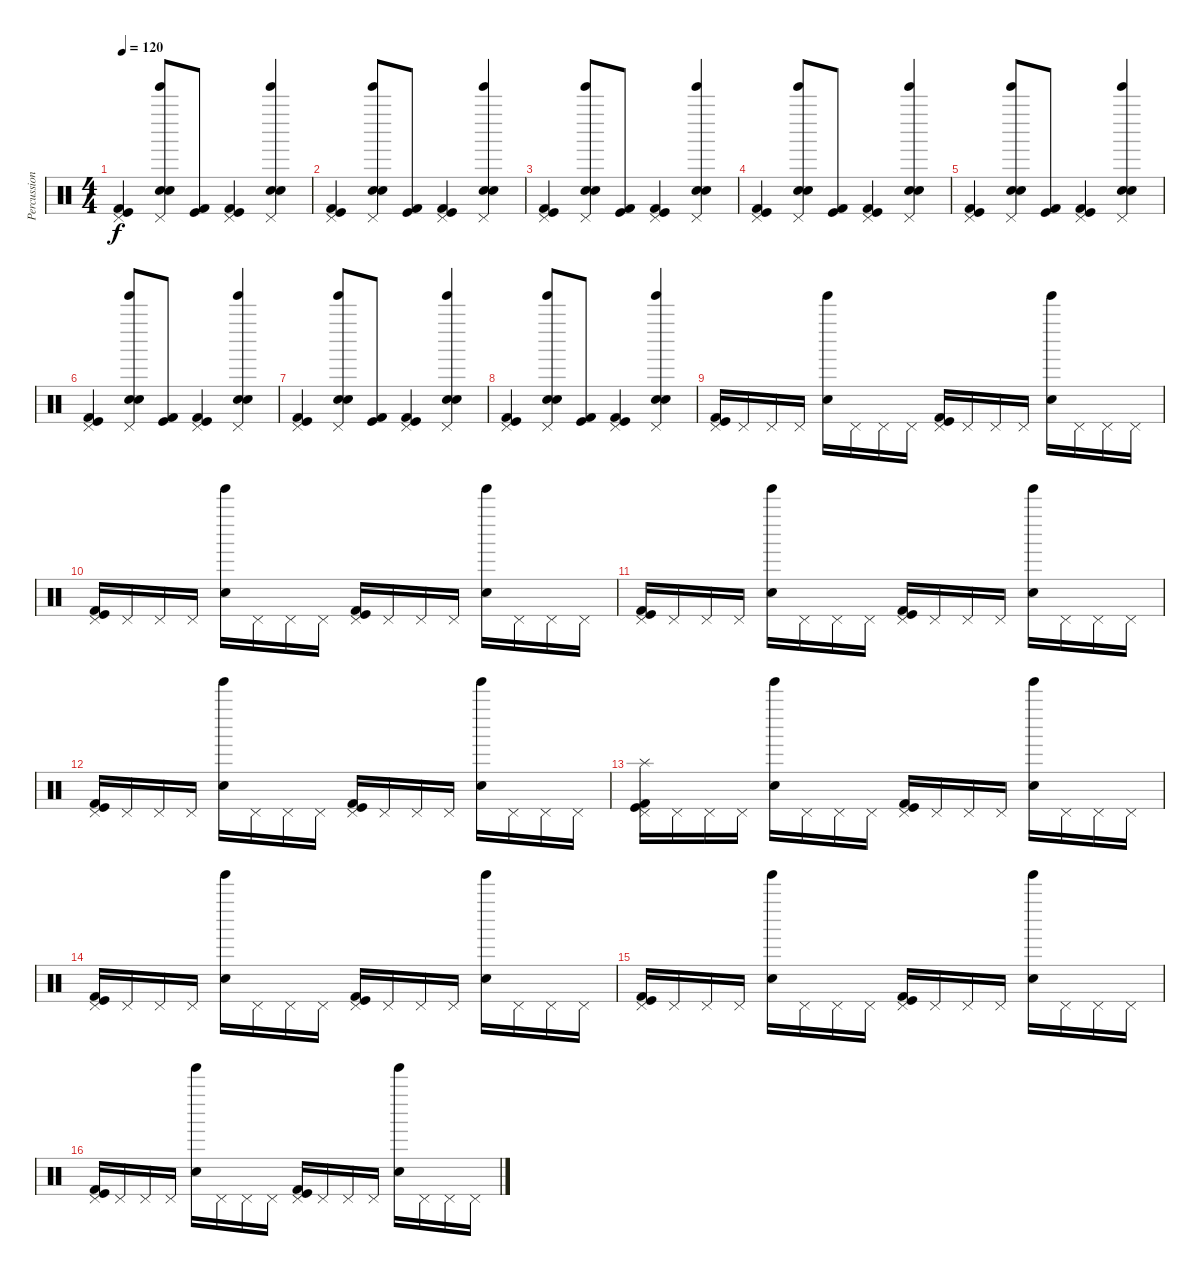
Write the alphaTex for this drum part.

\track ("Percussion" "Percussion") {instrument percussion}
\staff {score}
\articulation defaults
\ts (4 4)
\tempo 120
\clef neutral
\ks c
("Pedal Hi-Hat (hit)" "Kick (hit)" "Kick (hit) 2").4{dy f} ("Tinkle Bell (hit)" "Pedal Hi-Hat (hit)" "Snare (hit) 2" "Electric Snare (hit)").8 ("Kick (hit)" "Kick (hit) 2").8 ("Pedal Hi-Hat (hit)" "Kick (hit)" "Kick (hit) 2").4 ("Tinkle Bell (hit)" "Pedal Hi-Hat (hit)" "Snare (hit) 2" "Electric Snare (hit)").4 |
("Pedal Hi-Hat (hit)" "Kick (hit)" "Kick (hit) 2").4 ("Tinkle Bell (hit)" "Pedal Hi-Hat (hit)" "Snare (hit) 2" "Electric Snare (hit)").8 ("Kick (hit)" "Kick (hit) 2").8 ("Pedal Hi-Hat (hit)" "Kick (hit)" "Kick (hit) 2").4 ("Tinkle Bell (hit)" "Pedal Hi-Hat (hit)" "Snare (hit) 2" "Electric Snare (hit)").4 |
("Pedal Hi-Hat (hit)" "Kick (hit)" "Kick (hit) 2").4 ("Tinkle Bell (hit)" "Pedal Hi-Hat (hit)" "Snare (hit) 2" "Electric Snare (hit)").8 ("Kick (hit)" "Kick (hit) 2").8 ("Pedal Hi-Hat (hit)" "Kick (hit)" "Kick (hit) 2").4 ("Tinkle Bell (hit)" "Pedal Hi-Hat (hit)" "Snare (hit) 2" "Electric Snare (hit)").4 |
("Pedal Hi-Hat (hit)" "Kick (hit)" "Kick (hit) 2").4 ("Tinkle Bell (hit)" "Pedal Hi-Hat (hit)" "Snare (hit) 2" "Electric Snare (hit)").8 ("Kick (hit)" "Kick (hit) 2").8 ("Pedal Hi-Hat (hit)" "Kick (hit)" "Kick (hit) 2").4 ("Tinkle Bell (hit)" "Pedal Hi-Hat (hit)" "Snare (hit) 2" "Electric Snare (hit)").4 |
("Pedal Hi-Hat (hit)" "Kick (hit)" "Kick (hit) 2").4 ("Tinkle Bell (hit)" "Pedal Hi-Hat (hit)" "Snare (hit) 2" "Electric Snare (hit)").8 ("Kick (hit)" "Kick (hit) 2").8 ("Pedal Hi-Hat (hit)" "Kick (hit)" "Kick (hit) 2").4 ("Tinkle Bell (hit)" "Pedal Hi-Hat (hit)" "Snare (hit) 2" "Electric Snare (hit)").4 |
("Pedal Hi-Hat (hit)" "Kick (hit)" "Kick (hit) 2").4 ("Tinkle Bell (hit)" "Pedal Hi-Hat (hit)" "Snare (hit) 2" "Electric Snare (hit)").8 ("Kick (hit)" "Kick (hit) 2").8 ("Pedal Hi-Hat (hit)" "Kick (hit)" "Kick (hit) 2").4 ("Tinkle Bell (hit)" "Pedal Hi-Hat (hit)" "Snare (hit) 2" "Electric Snare (hit)").4 |
("Pedal Hi-Hat (hit)" "Kick (hit)" "Kick (hit) 2").4 ("Tinkle Bell (hit)" "Pedal Hi-Hat (hit)" "Snare (hit) 2" "Electric Snare (hit)").8 ("Kick (hit)" "Kick (hit) 2").8 ("Pedal Hi-Hat (hit)" "Kick (hit)" "Kick (hit) 2").4 ("Tinkle Bell (hit)" "Pedal Hi-Hat (hit)" "Snare (hit) 2" "Electric Snare (hit)").4 |
("Pedal Hi-Hat (hit)" "Kick (hit)" "Kick (hit) 2").4 ("Tinkle Bell (hit)" "Pedal Hi-Hat (hit)" "Snare (hit) 2" "Electric Snare (hit)").8 ("Kick (hit)" "Kick (hit) 2").8 ("Pedal Hi-Hat (hit)" "Kick (hit)" "Kick (hit) 2").4 ("Tinkle Bell (hit)" "Pedal Hi-Hat (hit)" "Snare (hit) 2" "Electric Snare (hit)").4 |
("Pedal Hi-Hat (hit)" "Kick (hit)" "Kick (hit) 2").16 "Pedal Hi-Hat (hit)".16 "Pedal Hi-Hat (hit)".16 "Pedal Hi-Hat (hit)".16 ("Tinkle Bell (hit)" "Snare (hit) 2").16 "Pedal Hi-Hat (hit)".16 "Pedal Hi-Hat (hit)".16 "Pedal Hi-Hat (hit)".16 ("Pedal Hi-Hat (hit)" "Kick (hit)" "Kick (hit) 2").16 "Pedal Hi-Hat (hit)".16 "Pedal Hi-Hat (hit)".16 "Pedal Hi-Hat (hit)".16 ("Tinkle Bell (hit)" "Snare (hit) 2").16 "Pedal Hi-Hat (hit)".16 "Pedal Hi-Hat (hit)".16 "Pedal Hi-Hat (hit)".16 |
("Pedal Hi-Hat (hit)" "Kick (hit)" "Kick (hit) 2").16 "Pedal Hi-Hat (hit)".16 "Pedal Hi-Hat (hit)".16 "Pedal Hi-Hat (hit)".16 ("Tinkle Bell (hit)" "Snare (hit) 2").16 "Pedal Hi-Hat (hit)".16 "Pedal Hi-Hat (hit)".16 "Pedal Hi-Hat (hit)".16 ("Pedal Hi-Hat (hit)" "Kick (hit)" "Kick (hit) 2").16 "Pedal Hi-Hat (hit)".16 "Pedal Hi-Hat (hit)".16 "Pedal Hi-Hat (hit)".16 ("Tinkle Bell (hit)" "Snare (hit) 2").16 "Pedal Hi-Hat (hit)".16 "Pedal Hi-Hat (hit)".16 "Pedal Hi-Hat (hit)".16 |
("Pedal Hi-Hat (hit)" "Kick (hit)" "Kick (hit) 2").16 "Pedal Hi-Hat (hit)".16 "Pedal Hi-Hat (hit)".16 "Pedal Hi-Hat (hit)".16 ("Tinkle Bell (hit)" "Snare (hit) 2").16 "Pedal Hi-Hat (hit)".16 "Pedal Hi-Hat (hit)".16 "Pedal Hi-Hat (hit)".16 ("Pedal Hi-Hat (hit)" "Kick (hit)" "Kick (hit) 2").16 "Pedal Hi-Hat (hit)".16 "Pedal Hi-Hat (hit)".16 "Pedal Hi-Hat (hit)".16 ("Tinkle Bell (hit)" "Snare (hit) 2").16 "Pedal Hi-Hat (hit)".16 "Pedal Hi-Hat (hit)".16 "Pedal Hi-Hat (hit)".16 |
("Pedal Hi-Hat (hit)" "Kick (hit)" "Kick (hit) 2").16 "Pedal Hi-Hat (hit)".16 "Pedal Hi-Hat (hit)".16 "Pedal Hi-Hat (hit)".16 ("Tinkle Bell (hit)" "Snare (hit) 2").16 "Pedal Hi-Hat (hit)".16 "Pedal Hi-Hat (hit)".16 "Pedal Hi-Hat (hit)".16 ("Pedal Hi-Hat (hit)" "Kick (hit)" "Kick (hit) 2").16 "Pedal Hi-Hat (hit)".16 "Pedal Hi-Hat (hit)".16 "Pedal Hi-Hat (hit)".16 ("Tinkle Bell (hit)" "Snare (hit) 2").16 "Pedal Hi-Hat (hit)".16 "Pedal Hi-Hat (hit)".16 "Pedal Hi-Hat (hit)".16 |
("Splash (hit)" "Pedal Hi-Hat (hit)" "Kick (hit)" "Kick (hit) 2").16 "Pedal Hi-Hat (hit)".16 "Pedal Hi-Hat (hit)".16 "Pedal Hi-Hat (hit)".16 ("Tinkle Bell (hit)" "Snare (hit) 2").16 "Pedal Hi-Hat (hit)".16 "Pedal Hi-Hat (hit)".16 "Pedal Hi-Hat (hit)".16 ("Pedal Hi-Hat (hit)" "Kick (hit)" "Kick (hit) 2").16 "Pedal Hi-Hat (hit)".16 "Pedal Hi-Hat (hit)".16 "Pedal Hi-Hat (hit)".16 ("Tinkle Bell (hit)" "Snare (hit) 2").16 "Pedal Hi-Hat (hit)".16 "Pedal Hi-Hat (hit)".16 "Pedal Hi-Hat (hit)".16 |
("Pedal Hi-Hat (hit)" "Kick (hit)" "Kick (hit) 2").16 "Pedal Hi-Hat (hit)".16 "Pedal Hi-Hat (hit)".16 "Pedal Hi-Hat (hit)".16 ("Tinkle Bell (hit)" "Snare (hit) 2").16 "Pedal Hi-Hat (hit)".16 "Pedal Hi-Hat (hit)".16 "Pedal Hi-Hat (hit)".16 ("Pedal Hi-Hat (hit)" "Kick (hit)" "Kick (hit) 2").16 "Pedal Hi-Hat (hit)".16 "Pedal Hi-Hat (hit)".16 "Pedal Hi-Hat (hit)".16 ("Tinkle Bell (hit)" "Snare (hit) 2").16 "Pedal Hi-Hat (hit)".16 "Pedal Hi-Hat (hit)".16 "Pedal Hi-Hat (hit)".16 |
("Pedal Hi-Hat (hit)" "Kick (hit)" "Kick (hit) 2").16 "Pedal Hi-Hat (hit)".16 "Pedal Hi-Hat (hit)".16 "Pedal Hi-Hat (hit)".16 ("Tinkle Bell (hit)" "Snare (hit) 2").16 "Pedal Hi-Hat (hit)".16 "Pedal Hi-Hat (hit)".16 "Pedal Hi-Hat (hit)".16 ("Pedal Hi-Hat (hit)" "Kick (hit)" "Kick (hit) 2").16 "Pedal Hi-Hat (hit)".16 "Pedal Hi-Hat (hit)".16 "Pedal Hi-Hat (hit)".16 ("Tinkle Bell (hit)" "Snare (hit) 2").16 "Pedal Hi-Hat (hit)".16 "Pedal Hi-Hat (hit)".16 "Pedal Hi-Hat (hit)".16 |
("Pedal Hi-Hat (hit)" "Kick (hit)" "Kick (hit) 2").16 "Pedal Hi-Hat (hit)".16 "Pedal Hi-Hat (hit)".16 "Pedal Hi-Hat (hit)".16 ("Tinkle Bell (hit)" "Snare (hit) 2").16 "Pedal Hi-Hat (hit)".16 "Pedal Hi-Hat (hit)".16 "Pedal Hi-Hat (hit)".16 ("Pedal Hi-Hat (hit)" "Kick (hit)" "Kick (hit) 2").16 "Pedal Hi-Hat (hit)".16 "Pedal Hi-Hat (hit)".16 "Pedal Hi-Hat (hit)".16 ("Tinkle Bell (hit)" "Snare (hit) 2").16 "Pedal Hi-Hat (hit)".16 "Pedal Hi-Hat (hit)".16 "Pedal Hi-Hat (hit)".16
